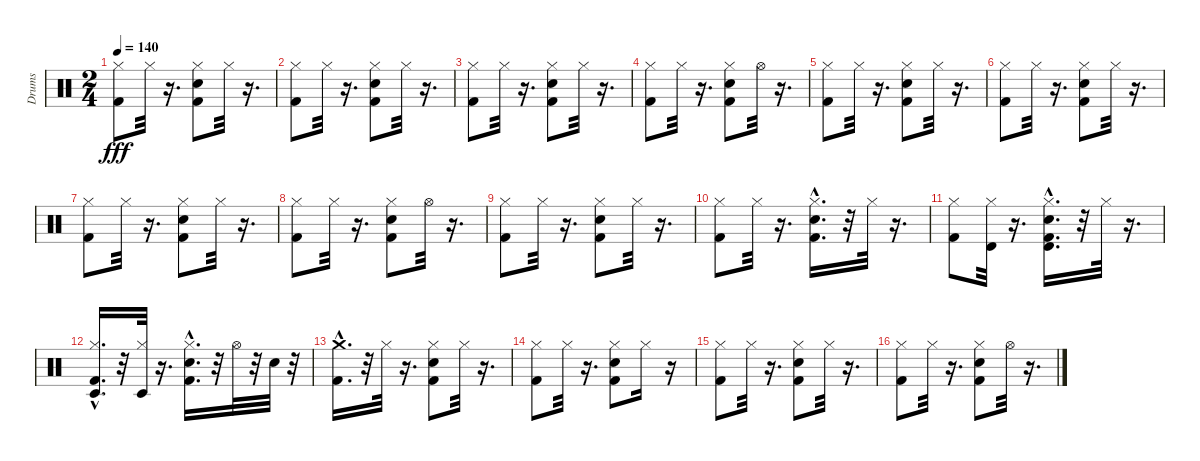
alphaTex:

\track ("Drums" "Drums") {instrument percussion}
\staff {score}
\articulation defaults
\ts (2 4)
\tempo 140
\clef neutral
\ks c
("Kick (hit) 2" "Hi-Hat (closed)").8{dy fff} "Hi-Hat (closed)".32 r.16{d} ("Snare (hit) 2" "Kick (hit) 2" "Hi-Hat (closed)").8 "Hi-Hat (closed)".32 r.16{d} |
("Kick (hit) 2" "Hi-Hat (closed)").8 "Hi-Hat (closed)".32 r.16{d} ("Snare (hit) 2" "Kick (hit) 2" "Hi-Hat (closed)").8 "Hi-Hat (closed)".32 r.16{d} |
("Kick (hit) 2" "Hi-Hat (closed)").8 "Hi-Hat (closed)".32 r.16{d} ("Snare (hit) 2" "Kick (hit) 2" "Hi-Hat (closed)").8 "Hi-Hat (closed)".32 r.16{d} |
("Kick (hit) 2" "Hi-Hat (closed)").8 "Hi-Hat (closed)".32 r.16{d} ("Kick (hit) 2" "Snare (hit) 2" "Hi-Hat (closed)").8 "Hi-Hat (open)".32 r.16{d} |
("Kick (hit) 2" "Hi-Hat (closed)").8 "Hi-Hat (closed)".32 r.16{d} ("Snare (hit) 2" "Kick (hit) 2" "Hi-Hat (closed)").8 "Hi-Hat (closed)".32 r.16{d} |
("Kick (hit) 2" "Hi-Hat (closed)").8 "Hi-Hat (closed)".32 r.16{d} ("Snare (hit) 2" "Kick (hit) 2" "Hi-Hat (closed)").8 "Hi-Hat (closed)".32 r.16{d} |
("Kick (hit) 2" "Hi-Hat (closed)").8 "Hi-Hat (closed)".32 r.16{d} ("Snare (hit) 2" "Kick (hit) 2" "Hi-Hat (closed)").8 "Hi-Hat (closed)".32 r.16{d} |
("Kick (hit) 2" "Hi-Hat (closed)").8 "Hi-Hat (closed)".32 r.16{d} ("Snare (hit) 2" "Kick (hit) 2" "Hi-Hat (closed)").8 "Hi-Hat (open)".32 r.16{d} |
("Kick (hit) 2" "Hi-Hat (closed)").8 "Hi-Hat (closed)".32 r.16{d} ("Kick (hit) 2" "Hi-Hat (closed)" "Snare (hit) 2").8 "Hi-Hat (closed)".32 r.16{d} |
("Kick (hit) 2" "Hi-Hat (closed)").8 "Hi-Hat (closed)".32 r.16{d} ("Snare (hit) 2"{hac} "Kick (hit) 2"{hac} "Hi-Hat (closed)").16{d} r.32 "Hi-Hat (closed)".32 r.16{d} |
("Kick (hit) 2" "Hi-Hat (closed)").8 ("Timbale high (hit)" "Hi-Hat (closed)").32 r.16{d} ("Kick (hit) 2"{hac} "Timbale high (hit)" "Snare (hit) 2"{hac} "Hi-Hat (closed)").16{d} r.32 "Hi-Hat (closed)".32 r.16{d} |
("Timbale low (hit)" "Hi-Hat (closed)" "Kick (hit) 2"{hac}).16{d} r.32 ("Timbale low (hit)" "Hi-Hat (closed)").32 r.16{d} ("Hi-Hat (closed)" "Snare (hit) 2"{hac} "Kick (hit) 2"{hac}).16{d} r.32 "Hi-Hat (open)".32 r.32 "Snare (hit) 2".32 r.32 |
("Kick (hit) 2"{hac} "Crash medium (hit)").16{d} r.32 "Hi-Hat (closed)".32 r.16{d} ("Snare (hit) 2" "Hi-Hat (closed)" "Kick (hit) 2").8 "Hi-Hat (closed)".32 r.16{d} |
("Kick (hit) 2" "Hi-Hat (closed)").8 "Hi-Hat (closed)".32 r.16{d} ("Snare (hit) 2" "Kick (hit) 2" "Hi-Hat (closed)").8 "Hi-Hat (closed)".16 r.16 |
("Kick (hit) 2" "Hi-Hat (closed)").8 "Hi-Hat (closed)".32 r.16{d} ("Kick (hit) 2" "Hi-Hat (closed)" "Snare (hit) 2").8 "Hi-Hat (closed)".32 r.16{d} |
("Kick (hit) 2" "Hi-Hat (closed)").8 "Hi-Hat (closed)".32 r.16{d} ("Kick (hit) 2" "Snare (hit) 2" "Hi-Hat (closed)").8 "Hi-Hat (open)".32 r.16{d}
